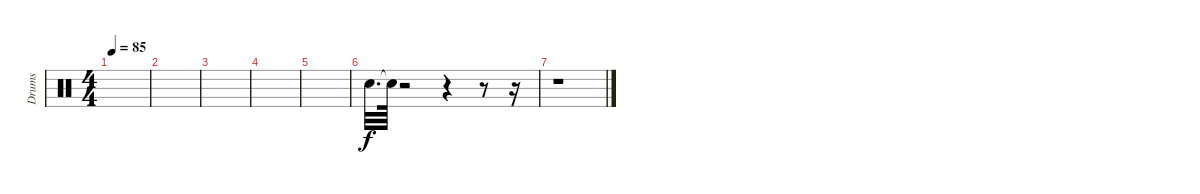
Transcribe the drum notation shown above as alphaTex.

\track ("Drums" "Drums") {instrument percussion}
\staff {score}
\articulation defaults
\ts (4 4)
\tempo 85
\clef neutral
\ks c
|
|
|
|
|
"Snare (hit)".32{d} "Snare (hit)"{t}.64 r.2 r.4 r.8 r.16 |
r.1
